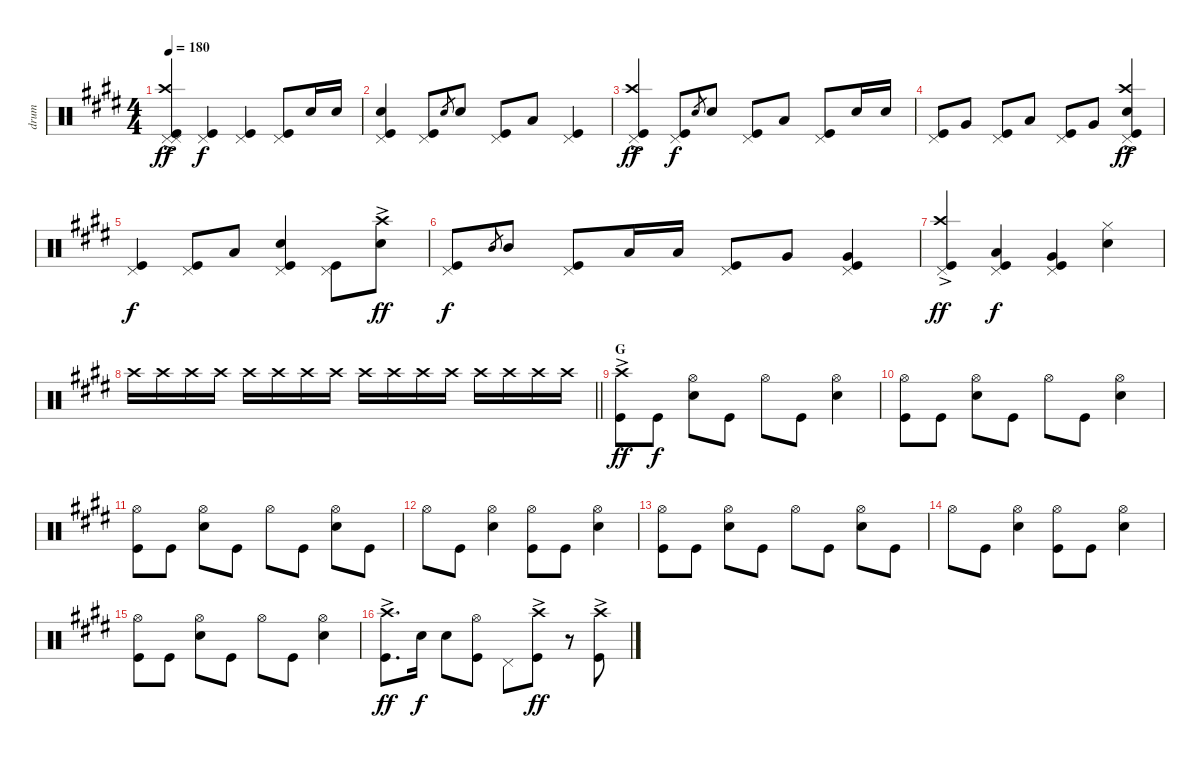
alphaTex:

\track ("drum" "drum") {instrument percussion}
\staff {score}
\articulation defaults
\ts (4 4)
\tempo 180
\clef neutral
\ks e
("Pedal Hi-Hat (hit)" "Crash high (hit)"{ac} "Kick (hit)" "Pedal Hi-Hat (hit)").4{dy ff} ("Kick (hit)" "Pedal Hi-Hat (hit)").4{dy f} ("Kick (hit)" "Pedal Hi-Hat (hit)").4 ("Kick (hit)" "Pedal Hi-Hat (hit)").8 "Snare (hit) 2".16 "Snare (hit) 2".16 |
("Snare (hit) 2" "Kick (hit)" "Pedal Hi-Hat (hit)").4 ("Kick (hit)" "Pedal Hi-Hat (hit)").8 "Snare (hit) 2".8{gr} "Snare (hit) 2".8 ("Kick (hit)" "Pedal Hi-Hat (hit)").8 "Low Tom (hit)".8 ("Kick (hit)" "Pedal Hi-Hat (hit)").4 |
("Crash high (hit)"{ac} "Kick (hit)" "Pedal Hi-Hat (hit)").4{dy ff} ("Kick (hit)" "Pedal Hi-Hat (hit)").8{dy f} "Snare (hit) 2".8{gr} "Snare (hit) 2".8 ("Kick (hit)" "Pedal Hi-Hat (hit)").8 "Low Tom (hit)".8 ("Kick (hit)" "Pedal Hi-Hat (hit)").8 "Snare (hit) 2".16 "Snare (hit) 2".16 |
("Kick (hit)" "Pedal Hi-Hat (hit)").8 "Very Low Tom (hit)".8 ("Kick (hit)" "Pedal Hi-Hat (hit)").8 "Low Tom (hit)".8 ("Kick (hit)" "Pedal Hi-Hat (hit)").8 "Very Low Tom (hit)".8 ("Crash high (hit)"{ac} "Snare (hit) 2" "Kick (hit)" "Pedal Hi-Hat (hit)").4{dy ff} |
("Kick (hit)" "Pedal Hi-Hat (hit)").4{dy f} ("Kick (hit)" "Pedal Hi-Hat (hit)").8 "Low Tom (hit)".8 ("Snare (hit) 2" "Kick (hit)" "Pedal Hi-Hat (hit)").4 ("Kick (hit)" "Pedal Hi-Hat (hit)").8 ("Snare (hit) 2" "Crash high (hit)"{ac}).8{dy ff} |
("Kick (hit)" "Pedal Hi-Hat (hit)").8{dy f} "Mid Tom (hit)".8{gr} "Mid Tom (hit)".8 ("Kick (hit)" "Pedal Hi-Hat (hit)").8 "Low Tom (hit)".16 "Low Tom (hit)".16 ("Kick (hit)" "Pedal Hi-Hat (hit)").8 "Very Low Tom (hit)".8 ("Very Low Tom (hit)" "Kick (hit)" "Pedal Hi-Hat (hit)").4 |
("Crash high (hit)"{ac} "Kick (hit)" "Pedal Hi-Hat (hit)").4{dy ff} ("Low Tom (hit)" "Kick (hit)" "Pedal Hi-Hat (hit)").4{dy f} ("Very Low Tom (hit)" "Kick (hit)" "Pedal Hi-Hat (hit)").4 ("Hi-Hat (closed)" "Snare (hit) 2").4 |
\barLineRight lightlight "Crash high (hit)".16{volume 8} "Crash high (hit)".16{volume 15} "Crash high (hit)".16 "Crash high (hit)".16 "Crash high (hit)".16 "Crash high (hit)".16 "Crash high (hit)".16 "Crash high (hit)".16 "Crash high (hit)".16 "Crash high (hit)".16 "Crash high (hit)".16 "Crash high (hit)".16 "Crash high (hit)".16 "Crash high (hit)".16 "Crash high (hit)".16 "Crash high (hit)".16
|
\section ("" "G")
("Crash high (hit)"{ac} "Kick (hit)").8{dy ff} "Kick (hit)".8{dy f} ("Hi-Hat (open)" "Snare (hit) 2").8 "Kick (hit)".8 "Hi-Hat (open)".8 "Kick (hit)".8 ("Hi-Hat (open)" "Snare (hit) 2").4 |
("Hi-Hat (open)" "Kick (hit)").8 "Kick (hit)".8 ("Hi-Hat (open)" "Snare (hit) 2").8 "Kick (hit)".8 "Hi-Hat (open)".8 "Kick (hit)".8 ("Hi-Hat (open)" "Snare (hit) 2").4 |
("Hi-Hat (open)" "Kick (hit)").8 "Kick (hit)".8 ("Hi-Hat (open)" "Snare (hit) 2").8 "Kick (hit)".8 "Hi-Hat (open)".8 "Kick (hit)".8 ("Hi-Hat (open)" "Snare (hit) 2").8 "Kick (hit)".8 |
"Hi-Hat (open)".8 "Kick (hit)".8 ("Hi-Hat (open)" "Snare (hit) 2").4 ("Hi-Hat (open)" "Kick (hit)").8 "Kick (hit)".8 ("Hi-Hat (open)" "Snare (hit) 2").4 |
("Hi-Hat (open)" "Kick (hit)").8 "Kick (hit)".8 ("Hi-Hat (open)" "Snare (hit) 2").8 "Kick (hit)".8 "Hi-Hat (open)".8 "Kick (hit)".8 ("Hi-Hat (open)" "Snare (hit) 2").8 "Kick (hit)".8 |
"Hi-Hat (open)".8 "Kick (hit)".8 ("Hi-Hat (open)" "Snare (hit) 2").4 ("Hi-Hat (open)" "Kick (hit)").8 "Kick (hit)".8 ("Hi-Hat (open)" "Snare (hit) 2").4 |
("Hi-Hat (open)" "Kick (hit)").8 "Kick (hit)".8 ("Hi-Hat (open)" "Snare (hit) 2").8 "Kick (hit)".8 "Hi-Hat (open)".8 "Kick (hit)".8 ("Hi-Hat (open)" "Snare (hit) 2").4 |
("Crash high (hit)"{ac} "Kick (hit)").8{d dy ff} "Snare (hit) 2".16{dy f} "Snare (hit) 2".8 ("Hi-Hat (open)" "Kick (hit)").8 "Pedal Hi-Hat (hit)".8 ("Crash high (hit)"{ac} "Kick (hit)").8{dy ff} r.8 ("Crash high (hit)"{ac} "Kick (hit)").8
